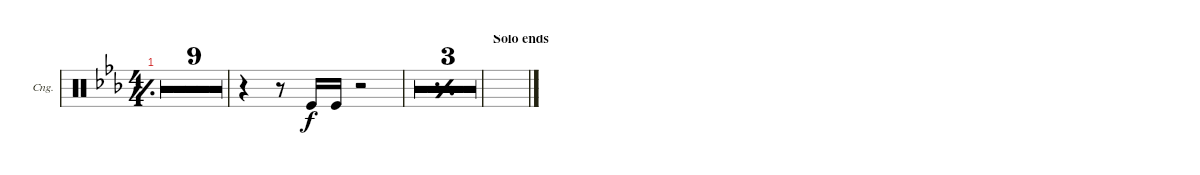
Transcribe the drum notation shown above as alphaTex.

\bracketExtendMode groupsimilarinstruments
\firstSystemTrackNameOrientation horizontal
\otherSystemsTrackNameOrientation horizontal
\defaultBarNumberDisplay FirstOfSystem
\track ("Congas" "Cng.") {multiBarRest instrument percussion}
\staff {score}
\articulation defaults
\ts (4 4)
\tempo 81
\clef neutral
\simile simple
\ks eb
|
|
|
|
|
|
|
|
r.1 |
r.4 r.8 "Kick (hit)".16 "Kick (hit)".16 r.2 |
\simile simple
|
|
|
\section ("" "Solo ends")
